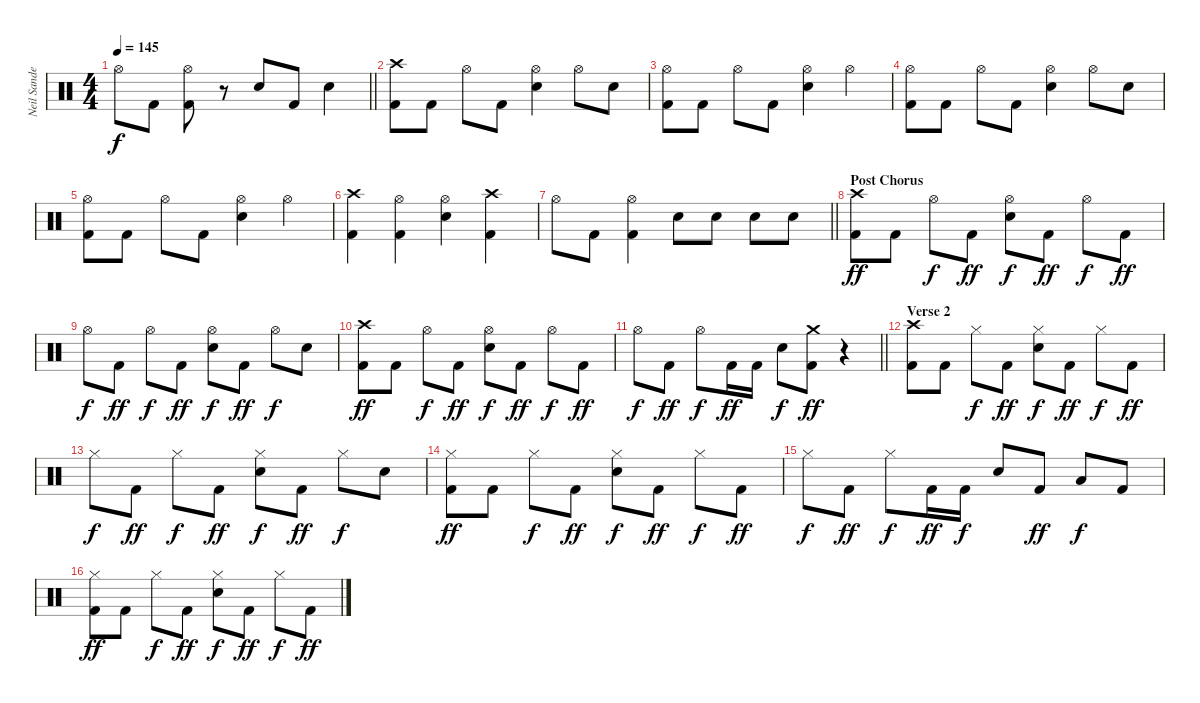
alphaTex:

\track ("Neil Sanderson" "Neil Sande") {instrument percussion}
\staff {score}
\articulation defaults
\ts (4 4)
\tempo 145
\clef neutral
\barLineRight lightlight
\ks c "Hi-Hat (open)".8{dy f} "Kick (hit) 2".8
("Hi-Hat (open)" "Kick (hit) 2").8 r.8 "Electric Snare (hit)".8 "Kick (hit) 2".8 "Electric Snare (hit)".4 |
("Crash high (hit)" "Kick (hit) 2").8 "Kick (hit) 2".8 "Hi-Hat (open)".8 "Kick (hit) 2".8 ("Hi-Hat (open)" "Electric Snare (hit)").4 "Hi-Hat (open)".8 "Electric Snare (hit)".8 |
("Hi-Hat (open)" "Kick (hit) 2").8 "Kick (hit) 2".8 "Hi-Hat (open)".8 "Kick (hit) 2".8 ("Hi-Hat (open)" "Electric Snare (hit)").4 "Hi-Hat (open)".4 |
("Hi-Hat (open)" "Kick (hit) 2").8 "Kick (hit) 2".8 "Hi-Hat (open)".8 "Kick (hit) 2".8 ("Hi-Hat (open)" "Electric Snare (hit)").4 "Hi-Hat (open)".8 "Electric Snare (hit)".8 |
("Hi-Hat (open)" "Kick (hit) 2").8 "Kick (hit) 2".8 "Hi-Hat (open)".8 "Kick (hit) 2".8 ("Hi-Hat (open)" "Electric Snare (hit)").4 "Hi-Hat (open)".4 |
("Crash high (hit)" "Kick (hit) 2").4 ("Hi-Hat (open)" "Kick (hit) 2").4 ("Hi-Hat (open)" "Electric Snare (hit)").4 ("Crash high (hit)" "Kick (hit) 2").4 |
\barLineRight lightlight "Hi-Hat (open)".8 "Kick (hit) 2".8
("Hi-Hat (open)" "Kick (hit) 2").4 "Electric Snare (hit)".8 "Electric Snare (hit)".8 "Electric Snare (hit)".8 "Electric Snare (hit)".8 |
\section ("" "Post Chorus")
("Crash high (hit)" "Kick (hit) 2").8{dy ff} "Kick (hit) 2".8 "Hi-Hat (open)".8{dy f} "Kick (hit) 2".8{dy ff} ("Hi-Hat (open)" "Electric Snare (hit)").8{dy f} "Kick (hit) 2".8{dy ff} "Hi-Hat (open)".8{dy f} "Kick (hit) 2".8{dy ff} |
"Hi-Hat (open)".8{dy f} "Kick (hit) 2".8{dy ff} "Hi-Hat (open)".8{dy f} "Kick (hit) 2".8{dy ff} ("Hi-Hat (open)" "Electric Snare (hit)").8{dy f} "Kick (hit) 2".8{dy ff} "Hi-Hat (open)".8{dy f} "Electric Snare (hit)".8 |
("Crash high (hit)" "Kick (hit) 2").8{dy ff} "Kick (hit) 2".8 "Hi-Hat (open)".8{dy f} "Kick (hit) 2".8{dy ff} ("Hi-Hat (open)" "Electric Snare (hit)").8{dy f} "Kick (hit) 2".8{dy ff} "Hi-Hat (open)".8{dy f} "Kick (hit) 2".8{dy ff} |
\barLineRight lightlight "Hi-Hat (open)".8{dy f} "Kick (hit) 2".8{dy ff} "Hi-Hat (open)".8{dy f} "Kick (hit) 2".16{dy ff} "Kick (hit) 2".16 "Electric Snare (hit)".8{dy f}
("Crash medium (hit)" "Kick (hit) 2").8{dy ff} r.4 |
\section ("" "Verse 2")
("Crash high (hit)" "Kick (hit) 2").8 "Kick (hit) 2".8 "Hi-Hat (closed)".8{dy f} "Kick (hit) 2".8{dy ff} ("Hi-Hat (closed)" "Electric Snare (hit)").8{dy f} "Kick (hit) 2".8{dy ff} "Hi-Hat (closed)".8{dy f} "Kick (hit) 2".8{dy ff} |
"Hi-Hat (closed)".8{dy f} "Kick (hit) 2".8{dy ff} "Hi-Hat (closed)".8{dy f} "Kick (hit) 2".8{dy ff} ("Hi-Hat (closed)" "Electric Snare (hit)").8{dy f} "Kick (hit) 2".8{dy ff} "Hi-Hat (closed)".8{dy f} "Electric Snare (hit)".8 |
("Hi-Hat (closed)" "Kick (hit) 2").8{dy ff} "Kick (hit) 2".8 "Hi-Hat (closed)".8{dy f} "Kick (hit) 2".8{dy ff} ("Hi-Hat (closed)" "Electric Snare (hit)").8{dy f} "Kick (hit) 2".8{dy ff} "Hi-Hat (closed)".8{dy f} "Kick (hit) 2".8{dy ff} |
"Hi-Hat (closed)".8{dy f} "Kick (hit) 2".8{dy ff} "Hi-Hat (closed)".8{dy f} "Kick (hit) 2".16{dy ff} "Kick (hit) 2".16{dy f} "Electric Snare (hit)".8 "Kick (hit) 2".8{dy ff} "Low Tom (hit)".8{dy f} "Kick (hit) 2".8 |
("Hi-Hat (closed)" "Kick (hit) 2").8{dy ff} "Kick (hit) 2".8 "Hi-Hat (closed)".8{dy f} "Kick (hit) 2".8{dy ff} ("Hi-Hat (closed)" "Electric Snare (hit)").8{dy f} "Kick (hit) 2".8{dy ff} "Hi-Hat (closed)".8{dy f} "Kick (hit) 2".8{dy ff}
